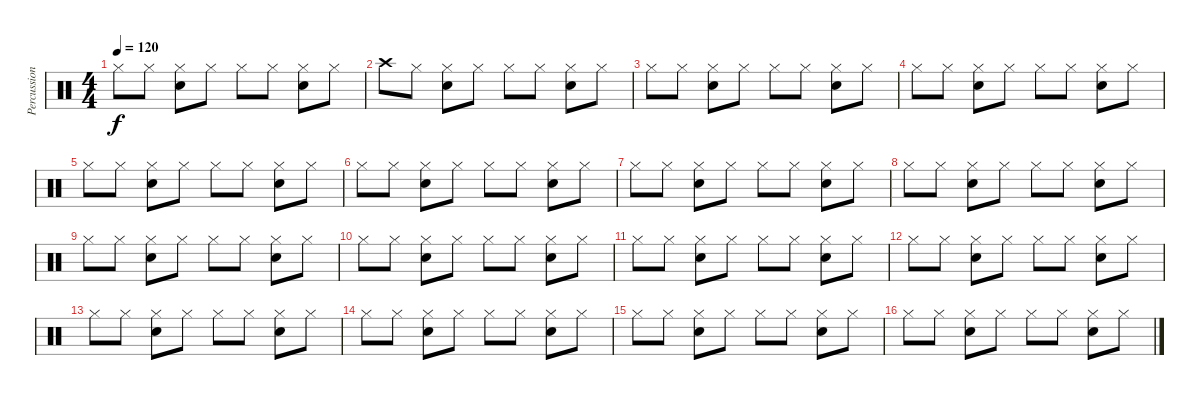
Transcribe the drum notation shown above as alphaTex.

\track ("Percussion      " "Percussion") {instrument percussion}
\staff {score}
\articulation defaults
\ts (4 4)
\tempo 120
\clef neutral
\ks c "Hi-Hat (closed)".8{dy f} "Hi-Hat (closed)".8
("Hi-Hat (closed)" "Snare (hit) 2").8 "Hi-Hat (closed)".8 "Hi-Hat (closed)".8 "Hi-Hat (closed)".8 ("Hi-Hat (closed)" "Snare (hit) 2").8 "Hi-Hat (closed)".8 |
"Crash high (hit)".8 "Hi-Hat (closed)".8 ("Hi-Hat (closed)" "Snare (hit) 2").8 "Hi-Hat (closed)".8 "Hi-Hat (closed)".8 "Hi-Hat (closed)".8 ("Hi-Hat (closed)" "Snare (hit) 2").8 "Hi-Hat (closed)".8 |
"Hi-Hat (closed)".8 "Hi-Hat (closed)".8 ("Hi-Hat (closed)" "Snare (hit) 2").8 "Hi-Hat (closed)".8 "Hi-Hat (closed)".8 "Hi-Hat (closed)".8 ("Hi-Hat (closed)" "Snare (hit) 2").8 "Hi-Hat (closed)".8 |
"Hi-Hat (closed)".8 "Hi-Hat (closed)".8 ("Hi-Hat (closed)" "Snare (hit) 2").8 "Hi-Hat (closed)".8 "Hi-Hat (closed)".8 "Hi-Hat (closed)".8 ("Hi-Hat (closed)" "Snare (hit) 2").8 "Hi-Hat (closed)".8 |
"Hi-Hat (closed)".8 "Hi-Hat (closed)".8 ("Hi-Hat (closed)" "Snare (hit) 2").8 "Hi-Hat (closed)".8 "Hi-Hat (closed)".8 "Hi-Hat (closed)".8 ("Hi-Hat (closed)" "Snare (hit) 2").8 "Hi-Hat (closed)".8 |
"Hi-Hat (closed)".8 "Hi-Hat (closed)".8 ("Hi-Hat (closed)" "Snare (hit) 2").8 "Hi-Hat (closed)".8 "Hi-Hat (closed)".8 "Hi-Hat (closed)".8 ("Hi-Hat (closed)" "Snare (hit) 2").8 "Hi-Hat (closed)".8 |
"Hi-Hat (closed)".8 "Hi-Hat (closed)".8 ("Hi-Hat (closed)" "Snare (hit) 2").8 "Hi-Hat (closed)".8 "Hi-Hat (closed)".8 "Hi-Hat (closed)".8 ("Hi-Hat (closed)" "Snare (hit) 2").8 "Hi-Hat (closed)".8 |
"Hi-Hat (closed)".8 "Hi-Hat (closed)".8 ("Hi-Hat (closed)" "Snare (hit) 2").8 "Hi-Hat (closed)".8 "Hi-Hat (closed)".8 "Hi-Hat (closed)".8 ("Hi-Hat (closed)" "Snare (hit) 2").8 "Hi-Hat (closed)".8 |
"Hi-Hat (closed)".8 "Hi-Hat (closed)".8 ("Hi-Hat (closed)" "Snare (hit) 2").8 "Hi-Hat (closed)".8 "Hi-Hat (closed)".8 "Hi-Hat (closed)".8 ("Hi-Hat (closed)" "Snare (hit) 2").8 "Hi-Hat (closed)".8 |
"Hi-Hat (closed)".8 "Hi-Hat (closed)".8 ("Hi-Hat (closed)" "Snare (hit) 2").8 "Hi-Hat (closed)".8 "Hi-Hat (closed)".8 "Hi-Hat (closed)".8 ("Hi-Hat (closed)" "Snare (hit) 2").8 "Hi-Hat (closed)".8 |
"Hi-Hat (closed)".8 "Hi-Hat (closed)".8 ("Hi-Hat (closed)" "Snare (hit) 2").8 "Hi-Hat (closed)".8 "Hi-Hat (closed)".8 "Hi-Hat (closed)".8 ("Hi-Hat (closed)" "Snare (hit) 2").8 "Hi-Hat (closed)".8 |
"Hi-Hat (closed)".8 "Hi-Hat (closed)".8 ("Hi-Hat (closed)" "Snare (hit) 2").8 "Hi-Hat (closed)".8 "Hi-Hat (closed)".8 "Hi-Hat (closed)".8 ("Hi-Hat (closed)" "Snare (hit) 2").8 "Hi-Hat (closed)".8 |
"Hi-Hat (closed)".8 "Hi-Hat (closed)".8 ("Hi-Hat (closed)" "Snare (hit) 2").8 "Hi-Hat (closed)".8 "Hi-Hat (closed)".8 "Hi-Hat (closed)".8 ("Hi-Hat (closed)" "Snare (hit) 2").8 "Hi-Hat (closed)".8 |
"Hi-Hat (closed)".8 "Hi-Hat (closed)".8 ("Hi-Hat (closed)" "Snare (hit) 2").8 "Hi-Hat (closed)".8 "Hi-Hat (closed)".8 "Hi-Hat (closed)".8 ("Hi-Hat (closed)" "Snare (hit) 2").8 "Hi-Hat (closed)".8 |
"Hi-Hat (closed)".8 "Hi-Hat (closed)".8 ("Hi-Hat (closed)" "Snare (hit) 2").8 "Hi-Hat (closed)".8 "Hi-Hat (closed)".8 "Hi-Hat (closed)".8 ("Hi-Hat (closed)" "Snare (hit) 2").8 "Hi-Hat (closed)".8 |
"Hi-Hat (closed)".8 "Hi-Hat (closed)".8 ("Hi-Hat (closed)" "Snare (hit) 2").8 "Hi-Hat (closed)".8 "Hi-Hat (closed)".8 "Hi-Hat (closed)".8 ("Hi-Hat (closed)" "Snare (hit) 2").8 "Hi-Hat (closed)".8
